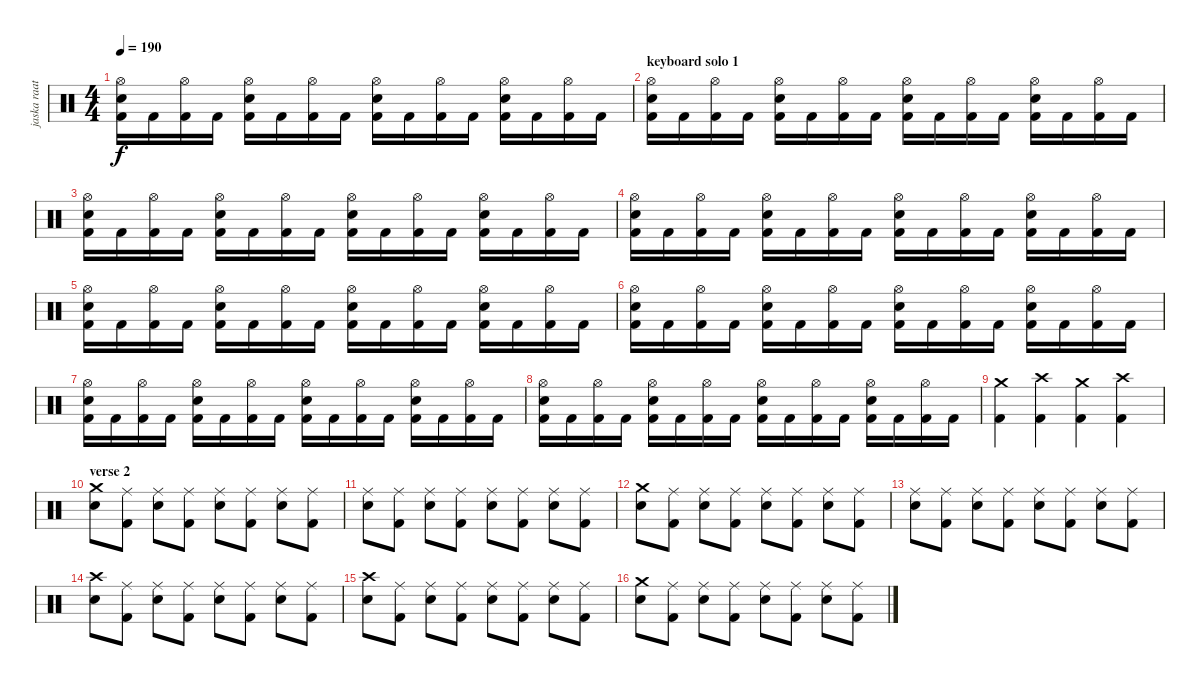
\track ("jaska raatikainen" "jaska raat") {instrument percussion}
\staff {score}
\articulation defaults
\ts (4 4)
\tempo 190
\clef neutral
\ks c
("Hi-Hat (open)" "Snare (hit) 2" "Kick (hit) 2").16{dy f} "Kick (hit) 2".16 ("Hi-Hat (open)" "Kick (hit) 2").16 "Kick (hit) 2".16 ("Hi-Hat (open)" "Snare (hit) 2" "Kick (hit) 2").16 "Kick (hit) 2".16 ("Hi-Hat (open)" "Kick (hit) 2").16 "Kick (hit) 2".16 ("Hi-Hat (open)" "Snare (hit) 2" "Kick (hit) 2").16 "Kick (hit) 2".16 ("Hi-Hat (open)" "Kick (hit) 2").16 "Kick (hit) 2".16 ("Hi-Hat (open)" "Snare (hit) 2" "Kick (hit) 2").16 "Kick (hit) 2".16 ("Hi-Hat (open)" "Kick (hit) 2").16 "Kick (hit) 2".16 |
\section ("" "keyboard solo 1")
("Hi-Hat (open)" "Snare (hit) 2" "Kick (hit) 2").16 "Kick (hit) 2".16 ("Hi-Hat (open)" "Kick (hit) 2").16 "Kick (hit) 2".16 ("Hi-Hat (open)" "Snare (hit) 2" "Kick (hit) 2").16 "Kick (hit) 2".16 ("Hi-Hat (open)" "Kick (hit) 2").16 "Kick (hit) 2".16 ("Hi-Hat (open)" "Snare (hit) 2" "Kick (hit) 2").16 "Kick (hit) 2".16 ("Hi-Hat (open)" "Kick (hit) 2").16 "Kick (hit) 2".16 ("Hi-Hat (open)" "Snare (hit) 2" "Kick (hit) 2").16 "Kick (hit) 2".16 ("Hi-Hat (open)" "Kick (hit) 2").16 "Kick (hit) 2".16 |
("Hi-Hat (open)" "Snare (hit) 2" "Kick (hit) 2").16 "Kick (hit) 2".16 ("Hi-Hat (open)" "Kick (hit) 2").16 "Kick (hit) 2".16 ("Hi-Hat (open)" "Snare (hit) 2" "Kick (hit) 2").16 "Kick (hit) 2".16 ("Hi-Hat (open)" "Kick (hit) 2").16 "Kick (hit) 2".16 ("Hi-Hat (open)" "Snare (hit) 2" "Kick (hit) 2").16 "Kick (hit) 2".16 ("Hi-Hat (open)" "Kick (hit) 2").16 "Kick (hit) 2".16 ("Hi-Hat (open)" "Snare (hit) 2" "Kick (hit) 2").16 "Kick (hit) 2".16 ("Hi-Hat (open)" "Kick (hit) 2").16 "Kick (hit) 2".16 |
("Hi-Hat (open)" "Snare (hit) 2" "Kick (hit) 2").16 "Kick (hit) 2".16 ("Hi-Hat (open)" "Kick (hit) 2").16 "Kick (hit) 2".16 ("Hi-Hat (open)" "Snare (hit) 2" "Kick (hit) 2").16 "Kick (hit) 2".16 ("Hi-Hat (open)" "Kick (hit) 2").16 "Kick (hit) 2".16 ("Hi-Hat (open)" "Snare (hit) 2" "Kick (hit) 2").16 "Kick (hit) 2".16 ("Hi-Hat (open)" "Kick (hit) 2").16 "Kick (hit) 2".16 ("Hi-Hat (open)" "Snare (hit) 2" "Kick (hit) 2").16 "Kick (hit) 2".16 ("Hi-Hat (open)" "Kick (hit) 2").16 "Kick (hit) 2".16 |
("Hi-Hat (open)" "Snare (hit) 2" "Kick (hit) 2").16 "Kick (hit) 2".16 ("Hi-Hat (open)" "Kick (hit) 2").16 "Kick (hit) 2".16 ("Hi-Hat (open)" "Snare (hit) 2" "Kick (hit) 2").16 "Kick (hit) 2".16 ("Hi-Hat (open)" "Kick (hit) 2").16 "Kick (hit) 2".16 ("Hi-Hat (open)" "Snare (hit) 2" "Kick (hit) 2").16 "Kick (hit) 2".16 ("Hi-Hat (open)" "Kick (hit) 2").16 "Kick (hit) 2".16 ("Hi-Hat (open)" "Snare (hit) 2" "Kick (hit) 2").16 "Kick (hit) 2".16 ("Hi-Hat (open)" "Kick (hit) 2").16 "Kick (hit) 2".16 |
("Hi-Hat (open)" "Snare (hit) 2" "Kick (hit) 2").16 "Kick (hit) 2".16 ("Hi-Hat (open)" "Kick (hit) 2").16 "Kick (hit) 2".16 ("Hi-Hat (open)" "Snare (hit) 2" "Kick (hit) 2").16 "Kick (hit) 2".16 ("Hi-Hat (open)" "Kick (hit) 2").16 "Kick (hit) 2".16 ("Hi-Hat (open)" "Snare (hit) 2" "Kick (hit) 2").16 "Kick (hit) 2".16 ("Hi-Hat (open)" "Kick (hit) 2").16 "Kick (hit) 2".16 ("Hi-Hat (open)" "Snare (hit) 2" "Kick (hit) 2").16 "Kick (hit) 2".16 ("Hi-Hat (open)" "Kick (hit) 2").16 "Kick (hit) 2".16 |
("Hi-Hat (open)" "Snare (hit) 2" "Kick (hit) 2").16 "Kick (hit) 2".16 ("Hi-Hat (open)" "Kick (hit) 2").16 "Kick (hit) 2".16 ("Hi-Hat (open)" "Snare (hit) 2" "Kick (hit) 2").16 "Kick (hit) 2".16 ("Hi-Hat (open)" "Kick (hit) 2").16 "Kick (hit) 2".16 ("Hi-Hat (open)" "Snare (hit) 2" "Kick (hit) 2").16 "Kick (hit) 2".16 ("Hi-Hat (open)" "Kick (hit) 2").16 "Kick (hit) 2".16 ("Hi-Hat (open)" "Snare (hit) 2" "Kick (hit) 2").16 "Kick (hit) 2".16 ("Hi-Hat (open)" "Kick (hit) 2").16 "Kick (hit) 2".16 |
("Hi-Hat (open)" "Snare (hit) 2" "Kick (hit) 2").16 "Kick (hit) 2".16 ("Hi-Hat (open)" "Kick (hit) 2").16 "Kick (hit) 2".16 ("Hi-Hat (open)" "Snare (hit) 2" "Kick (hit) 2").16 "Kick (hit) 2".16 ("Hi-Hat (open)" "Kick (hit) 2").16 "Kick (hit) 2".16 ("Hi-Hat (open)" "Snare (hit) 2" "Kick (hit) 2").16 "Kick (hit) 2".16 ("Hi-Hat (open)" "Kick (hit) 2").16 "Kick (hit) 2".16 ("Hi-Hat (open)" "Snare (hit) 2" "Kick (hit) 2").16 "Kick (hit) 2".16 ("Hi-Hat (open)" "Kick (hit) 2").16 "Kick (hit) 2".16 |
("Crash medium (hit)" "Kick (hit) 2").4 ("Crash high (hit)" "Kick (hit) 2").4 ("Crash medium (hit)" "Kick (hit) 2").4 ("Crash high (hit)" "Kick (hit) 2").4 |
\section ("" "verse 2")
("Crash medium (hit)" "Snare (hit) 2").8 ("Ride (middle)" "Kick (hit) 2").8 ("Ride (middle)" "Snare (hit) 2").8 ("Ride (middle)" "Kick (hit) 2").8 ("Ride (middle)" "Snare (hit) 2").8 ("Ride (middle)" "Kick (hit) 2").8 ("Ride (middle)" "Snare (hit) 2").8 ("Ride (middle)" "Kick (hit) 2").8 |
("Ride (middle)" "Snare (hit) 2").8 ("Ride (middle)" "Kick (hit) 2").8 ("Ride (middle)" "Snare (hit) 2").8 ("Ride (middle)" "Kick (hit) 2").8 ("Ride (middle)" "Snare (hit) 2").8 ("Ride (middle)" "Kick (hit) 2").8 ("Ride (middle)" "Snare (hit) 2").8 ("Ride (middle)" "Kick (hit) 2").8 |
("Crash medium (hit)" "Snare (hit) 2").8 ("Ride (middle)" "Kick (hit) 2").8 ("Ride (middle)" "Snare (hit) 2").8 ("Ride (middle)" "Kick (hit) 2").8 ("Ride (middle)" "Snare (hit) 2").8 ("Ride (middle)" "Kick (hit) 2").8 ("Ride (middle)" "Snare (hit) 2").8 ("Ride (middle)" "Kick (hit) 2").8 |
("Ride (middle)" "Snare (hit) 2").8 ("Ride (middle)" "Kick (hit) 2").8 ("Ride (middle)" "Snare (hit) 2").8 ("Ride (middle)" "Kick (hit) 2").8 ("Ride (middle)" "Snare (hit) 2").8 ("Ride (middle)" "Kick (hit) 2").8 ("Ride (middle)" "Snare (hit) 2").8 ("Ride (middle)" "Kick (hit) 2").8 |
("Crash high (hit)" "Snare (hit) 2").8 ("Ride (middle)" "Kick (hit) 2").8 ("Ride (middle)" "Snare (hit) 2").8 ("Ride (middle)" "Kick (hit) 2").8 ("Ride (middle)" "Snare (hit) 2").8 ("Ride (middle)" "Kick (hit) 2").8 ("Ride (middle)" "Snare (hit) 2").8 ("Ride (middle)" "Kick (hit) 2").8 |
("Crash high (hit)" "Snare (hit) 2").8 ("Ride (middle)" "Kick (hit) 2").8 ("Ride (middle)" "Snare (hit) 2").8 ("Ride (middle)" "Kick (hit) 2").8 ("Ride (middle)" "Snare (hit) 2").8 ("Ride (middle)" "Kick (hit) 2").8 ("Ride (middle)" "Snare (hit) 2").8 ("Ride (middle)" "Kick (hit) 2").8 |
("Crash medium (hit)" "Snare (hit) 2").8 ("Ride (middle)" "Kick (hit) 2").8 ("Ride (middle)" "Snare (hit) 2").8 ("Ride (middle)" "Kick (hit) 2").8 ("Ride (middle)" "Snare (hit) 2").8 ("Ride (middle)" "Kick (hit) 2").8 ("Ride (middle)" "Snare (hit) 2").8 ("Ride (middle)" "Kick (hit) 2").8
